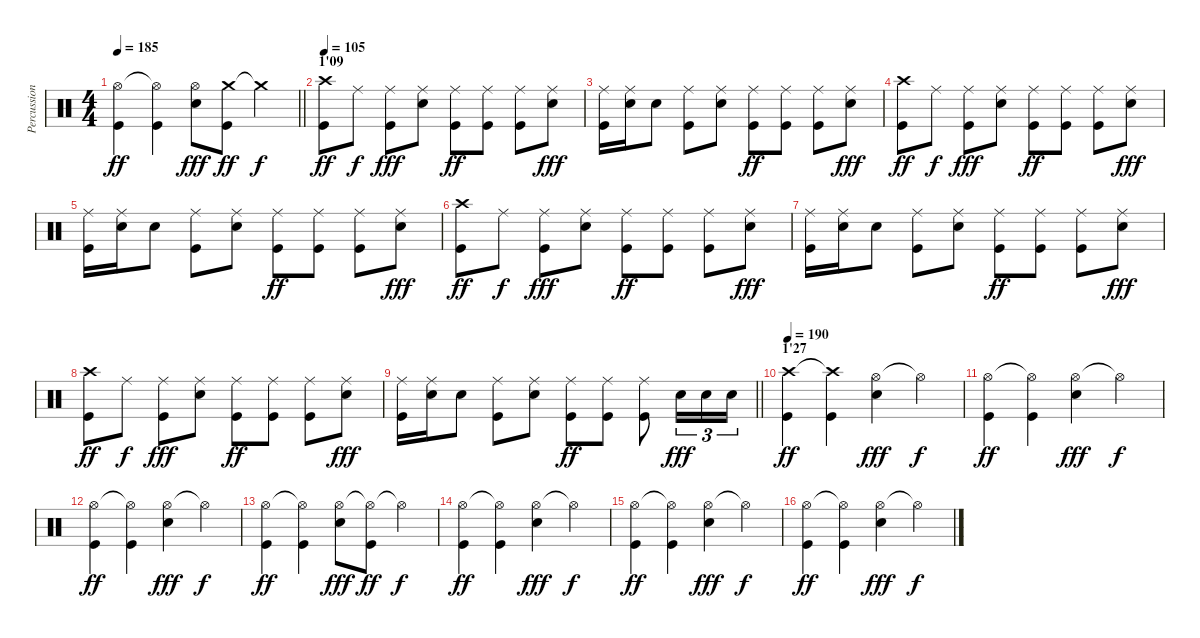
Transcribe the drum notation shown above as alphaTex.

\track ("Percussion" "Percussion") {instrument percussion}
\staff {score}
\articulation defaults
\ts (4 4)
\tempo 185
\clef neutral
\barLineRight lightlight
\ks c
("Hi-Hat (open)" "Kick (hit)").4{dy ff} ("Hi-Hat (open)"{t} "Kick (hit)").4 ("Hi-Hat (open)" "Electric Snare (hit)").8{dy fff} ("Crash medium (hit)" "Kick (hit)").8{dy ff} "Crash medium (hit)"{t}.4{dy f} |
\section ("" "1'09")
\tempo 105
("Crash high (hit)" "Kick (hit)").8{dy ff} "Ride (middle)".8{dy f} ("Ride (middle)" "Kick (hit)").8{dy fff} ("Ride (middle)" "Electric Snare (hit)").8 ("Ride (middle)" "Kick (hit)").8{dy ff} ("Ride (middle)" "Kick (hit)").8 ("Ride (middle)" "Kick (hit)").8 ("Ride (middle)" "Electric Snare (hit)").8{dy fff} |
("Ride (middle)" "Kick (hit)").16 ("Ride (middle)" "Electric Snare (hit)").16 "Electric Snare (hit)".8 ("Ride (middle)" "Kick (hit)").8 ("Ride (middle)" "Electric Snare (hit)").8 ("Ride (middle)" "Kick (hit)").8{dy ff} ("Ride (middle)" "Kick (hit)").8 ("Ride (middle)" "Kick (hit)").8 ("Ride (middle)" "Electric Snare (hit)").8{dy fff} |
("Crash high (hit)" "Kick (hit)").8{dy ff} "Ride (middle)".8{dy f} ("Ride (middle)" "Kick (hit)").8{dy fff} ("Ride (middle)" "Electric Snare (hit)").8 ("Ride (middle)" "Kick (hit)").8{dy ff} ("Ride (middle)" "Kick (hit)").8 ("Ride (middle)" "Kick (hit)").8 ("Ride (middle)" "Electric Snare (hit)").8{dy fff} |
("Ride (middle)" "Kick (hit)").16 ("Ride (middle)" "Electric Snare (hit)").16 "Electric Snare (hit)".8 ("Ride (middle)" "Kick (hit)").8 ("Ride (middle)" "Electric Snare (hit)").8 ("Ride (middle)" "Kick (hit)").8{dy ff} ("Ride (middle)" "Kick (hit)").8 ("Ride (middle)" "Kick (hit)").8 ("Ride (middle)" "Electric Snare (hit)").8{dy fff} |
("Crash high (hit)" "Kick (hit)").8{dy ff} "Ride (middle)".8{dy f} ("Ride (middle)" "Kick (hit)").8{dy fff} ("Ride (middle)" "Electric Snare (hit)").8 ("Ride (middle)" "Kick (hit)").8{dy ff} ("Ride (middle)" "Kick (hit)").8 ("Ride (middle)" "Kick (hit)").8 ("Ride (middle)" "Electric Snare (hit)").8{dy fff} |
("Ride (middle)" "Kick (hit)").16 ("Ride (middle)" "Electric Snare (hit)").16 "Electric Snare (hit)".8 ("Ride (middle)" "Kick (hit)").8 ("Ride (middle)" "Electric Snare (hit)").8 ("Ride (middle)" "Kick (hit)").8{dy ff} ("Ride (middle)" "Kick (hit)").8 ("Ride (middle)" "Kick (hit)").8 ("Ride (middle)" "Electric Snare (hit)").8{dy fff} |
("Crash high (hit)" "Kick (hit)").8{dy ff} "Ride (middle)".8{dy f} ("Ride (middle)" "Kick (hit)").8{dy fff} ("Ride (middle)" "Electric Snare (hit)").8 ("Ride (middle)" "Kick (hit)").8{dy ff} ("Ride (middle)" "Kick (hit)").8 ("Ride (middle)" "Kick (hit)").8 ("Ride (middle)" "Electric Snare (hit)").8{dy fff} |
\barLineRight lightlight
("Ride (middle)" "Kick (hit)").16 ("Ride (middle)" "Electric Snare (hit)").16 "Electric Snare (hit)".8 ("Ride (middle)" "Kick (hit)").8 ("Ride (middle)" "Electric Snare (hit)").8 ("Ride (middle)" "Kick (hit)").8{dy ff} ("Ride (middle)" "Kick (hit)").8 ("Ride (middle)" "Kick (hit)").8 "Electric Snare (hit)".16{tu (3 2) dy fff} "Electric Snare (hit)".16{tu (3 2)} "Electric Snare (hit)".16{tu (3 2)} |
\section ("" "1'27")
\tempo 190
("Crash high (hit)" "Kick (hit)").4{dy ff} ("Crash high (hit)"{t} "Kick (hit)").4 ("Hi-Hat (open)" "Electric Snare (hit)").4{dy fff} "Hi-Hat (open)"{t}.4{dy f} |
("Hi-Hat (open)" "Kick (hit)").4{dy ff} ("Hi-Hat (open)"{t} "Kick (hit)").4 ("Hi-Hat (open)" "Electric Snare (hit)").4{dy fff} "Hi-Hat (open)"{t}.4{dy f} |
("Hi-Hat (open)" "Kick (hit)").4{dy ff} ("Hi-Hat (open)"{t} "Kick (hit)").4 ("Hi-Hat (open)" "Electric Snare (hit)").4{dy fff} "Hi-Hat (open)"{t}.4{dy f} |
("Hi-Hat (open)" "Kick (hit)").4{dy ff} ("Hi-Hat (open)"{t} "Kick (hit)").4 ("Hi-Hat (open)" "Electric Snare (hit)").8{dy fff} ("Hi-Hat (open)"{t} "Kick (hit)").8{dy ff} "Hi-Hat (open)"{t}.4{dy f} |
("Hi-Hat (open)" "Kick (hit)").4{dy ff} ("Hi-Hat (open)"{t} "Kick (hit)").4 ("Hi-Hat (open)" "Electric Snare (hit)").4{dy fff} "Hi-Hat (open)"{t}.4{dy f} |
("Hi-Hat (open)" "Kick (hit)").4{dy ff} ("Hi-Hat (open)"{t} "Kick (hit)").4 ("Hi-Hat (open)" "Electric Snare (hit)").4{dy fff} "Hi-Hat (open)"{t}.4{dy f} |
("Hi-Hat (open)" "Kick (hit)").4{dy ff} ("Hi-Hat (open)"{t} "Kick (hit)").4 ("Hi-Hat (open)" "Electric Snare (hit)").4{dy fff} "Hi-Hat (open)"{t}.4{dy f}
